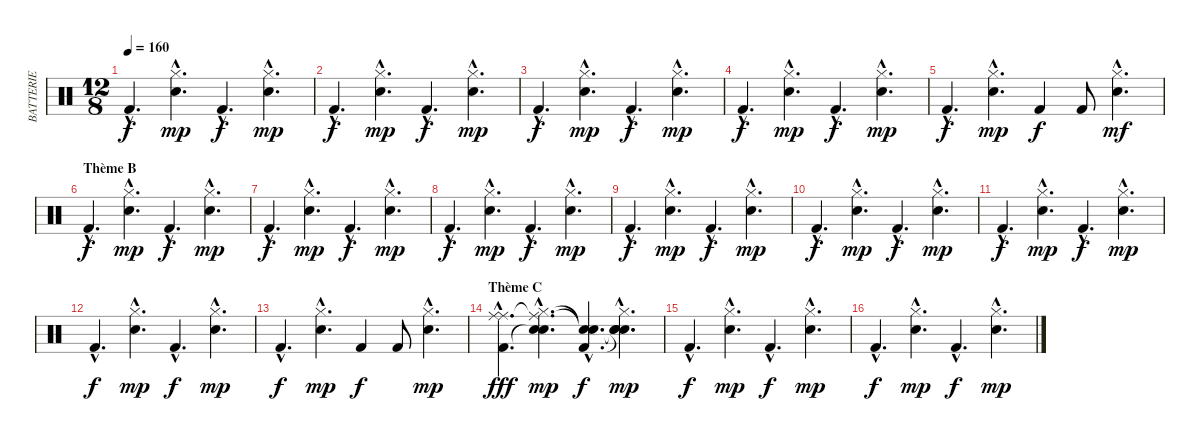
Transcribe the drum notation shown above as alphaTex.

\track ("BATTERIE" "BATTERIE") {instrument percussion}
\staff {score}
\articulation defaults
\ts (12 8)
\tempo 160
\clef neutral
\ks c "Kick (hit) 2"{hac}.4{d dy f}
("Hi-Hat (closed)"{hac} "Snare (hit) 2"{hac}).4{d dy mp} "Kick (hit) 2"{hac}.4{d dy f} ("Hi-Hat (closed)"{hac} "Snare (hit) 2"{hac}).4{d dy mp} |
"Kick (hit) 2"{hac}.4{d dy f} ("Hi-Hat (closed)"{hac} "Snare (hit) 2"{hac}).4{d dy mp} "Kick (hit) 2"{hac}.4{d dy f} ("Hi-Hat (closed)"{hac} "Snare (hit) 2"{hac}).4{d dy mp} |
"Kick (hit) 2"{hac}.4{d dy f} ("Hi-Hat (closed)"{hac} "Snare (hit) 2"{hac}).4{d dy mp} "Kick (hit) 2"{hac}.4{d dy f} ("Hi-Hat (closed)"{hac} "Snare (hit) 2"{hac}).4{d dy mp} |
"Kick (hit) 2"{hac}.4{d dy f} ("Hi-Hat (closed)"{hac} "Snare (hit) 2"{hac}).4{d dy mp} "Kick (hit) 2"{hac}.4{d dy f} ("Hi-Hat (closed)"{hac} "Snare (hit) 2"{hac}).4{d dy mp} |
"Kick (hit) 2"{hac}.4{d dy f} ("Hi-Hat (closed)"{hac} "Snare (hit) 2"{hac}).4{d dy mp} "Kick (hit) 2".4{dy f} "Kick (hit) 2".8 ("Hi-Hat (closed)"{hac} "Snare (hit) 2"{hac}).4{d dy mf} |
\section ("" "Thème B")
"Kick (hit) 2"{hac}.4{d dy f} ("Hi-Hat (closed)"{hac} "Snare (hit) 2"{hac}).4{d dy mp} "Kick (hit) 2"{hac}.4{d dy f} ("Hi-Hat (closed)"{hac} "Snare (hit) 2"{hac}).4{d dy mp} |
"Kick (hit) 2"{hac}.4{d dy f} ("Hi-Hat (closed)"{hac} "Snare (hit) 2"{hac}).4{d dy mp} "Kick (hit) 2"{hac}.4{d dy f} ("Hi-Hat (closed)"{hac} "Snare (hit) 2"{hac}).4{d dy mp} |
"Kick (hit) 2"{hac}.4{d dy f} ("Hi-Hat (closed)"{hac} "Snare (hit) 2"{hac}).4{d dy mp} "Kick (hit) 2"{hac}.4{d dy f} ("Hi-Hat (closed)"{hac} "Snare (hit) 2"{hac}).4{d dy mp} |
"Kick (hit) 2"{hac}.4{d dy f} ("Hi-Hat (closed)"{hac} "Snare (hit) 2"{hac}).4{d dy mp} "Kick (hit) 2"{hac}.4{d dy f} ("Hi-Hat (closed)"{hac} "Snare (hit) 2"{hac}).4{d dy mp} |
"Kick (hit) 2"{hac}.4{d dy f} ("Hi-Hat (closed)"{hac} "Snare (hit) 2"{hac}).4{d dy mp} "Kick (hit) 2"{hac}.4{d dy f} ("Hi-Hat (closed)"{hac} "Snare (hit) 2"{hac}).4{d dy mp} |
"Kick (hit) 2"{hac}.4{d dy f} ("Hi-Hat (closed)"{hac} "Snare (hit) 2"{hac}).4{d dy mp} "Kick (hit) 2"{hac}.4{d dy f} ("Hi-Hat (closed)"{hac} "Snare (hit) 2"{hac}).4{d dy mp} |
"Kick (hit) 2"{hac}.4{d dy f} ("Hi-Hat (closed)"{hac} "Snare (hit) 2"{hac}).4{d dy mp} "Kick (hit) 2"{hac}.4{d dy f} ("Hi-Hat (closed)"{hac} "Snare (hit) 2"{hac}).4{d dy mp} |
"Kick (hit) 2"{hac}.4{d dy f} ("Hi-Hat (closed)"{hac} "Snare (hit) 2"{hac}).4{d dy mp} "Kick (hit) 2".4{dy f} "Kick (hit) 2".8 ("Hi-Hat (closed)"{hac} "Snare (hit) 2"{hac}).4{d dy mp} |
\section ("" "Thème C")
("Ride (middle)"{hac} "Ride (middle)"{hac} "Kick (hit) 2"{hac}).4{d dy fff} ("Ride (middle)"{hac t} "Hi-Hat (closed)"{hac} "Snare (hit)"{hac t} "Snare (hit) 2"{hac}).4{d dy mp} ("Snare (hit)"{hac t} "Snare (hit)"{hac t} "Kick (hit) 2"{hac}).4{d dy f} ("Snare (hit)"{hac t} "Hi-Hat (closed)"{hac} "Snare (hit)"{hac t} "Snare (hit) 2"{hac}).4{d dy mp} |
"Kick (hit) 2"{hac}.4{d dy f} ("Hi-Hat (closed)"{hac} "Snare (hit) 2"{hac}).4{d dy mp} "Kick (hit) 2"{hac}.4{d dy f} ("Hi-Hat (closed)"{hac} "Snare (hit) 2"{hac}).4{d dy mp} |
"Kick (hit) 2"{hac}.4{d dy f} ("Hi-Hat (closed)"{hac} "Snare (hit) 2"{hac}).4{d dy mp} "Kick (hit) 2"{hac}.4{d dy f} ("Hi-Hat (closed)"{hac} "Snare (hit) 2"{hac}).4{d dy mp}
